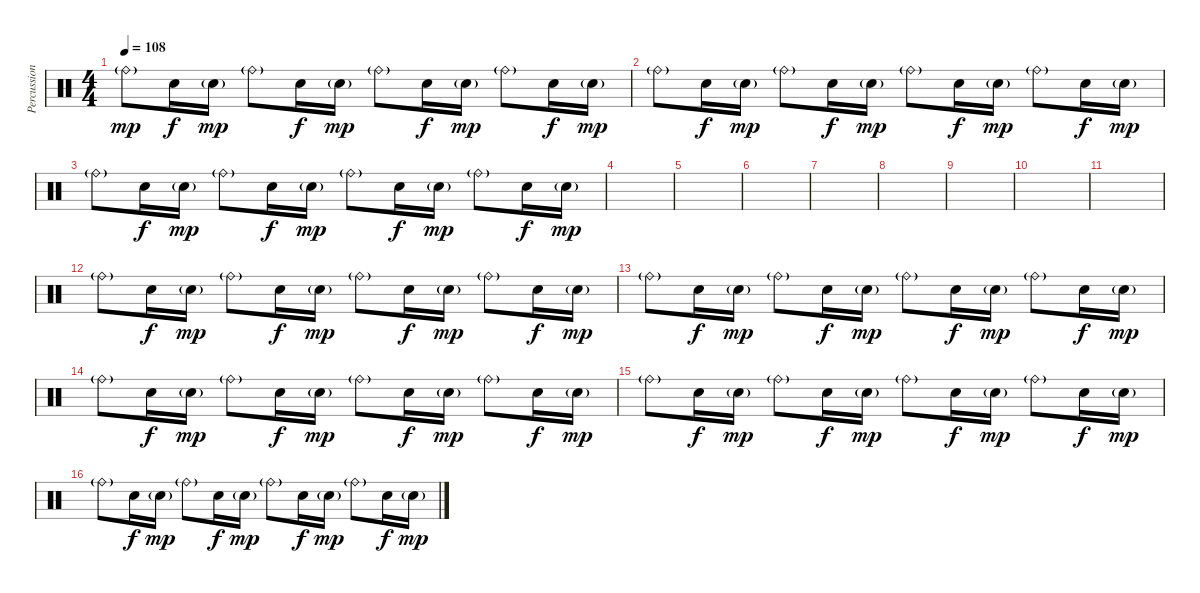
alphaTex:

\track ("Percussioni" "Percussion") {instrument percussion}
\staff {score}
\articulation defaults
\ts (4 4)
\tempo 108
\clef neutral
\ks c "Ride (bell)"{g}.8{dy mp} "Snare (hit) 2".16{dy f} "Snare (hit) 2"{g}.16{dy mp} "Ride (bell)"{g}.8 "Snare (hit) 2".16{dy f} "Snare (hit) 2"{g}.16{dy mp} "Ride (bell)"{g}.8 "Snare (hit) 2".16{dy f} "Snare (hit) 2"{g}.16{dy mp} "Ride (bell)"{g}.8 "Snare (hit) 2".16{dy f} "Snare (hit) 2"{g}.16{dy mp}
|
"Ride (bell)"{g}.8 "Snare (hit) 2".16{dy f} "Snare (hit) 2"{g}.16{dy mp} "Ride (bell)"{g}.8 "Snare (hit) 2".16{dy f} "Snare (hit) 2"{g}.16{dy mp} "Ride (bell)"{g}.8 "Snare (hit) 2".16{dy f} "Snare (hit) 2"{g}.16{dy mp} "Ride (bell)"{g}.8 "Snare (hit) 2".16{dy f} "Snare (hit) 2"{g}.16{dy mp} |
"Ride (bell)"{g}.8 "Snare (hit) 2".16{dy f} "Snare (hit) 2"{g}.16{dy mp} "Ride (bell)"{g}.8 "Snare (hit) 2".16{dy f} "Snare (hit) 2"{g}.16{dy mp} "Ride (bell)"{g}.8 "Snare (hit) 2".16{dy f} "Snare (hit) 2"{g}.16{dy mp} "Ride (bell)"{g}.8 "Snare (hit) 2".16{dy f} "Snare (hit) 2"{g}.16{dy mp} |
|
|
|
|
|
|
|
|
"Ride (bell)"{g}.8 "Snare (hit) 2".16{dy f} "Snare (hit) 2"{g}.16{dy mp} "Ride (bell)"{g}.8 "Snare (hit) 2".16{dy f} "Snare (hit) 2"{g}.16{dy mp} "Ride (bell)"{g}.8 "Snare (hit) 2".16{dy f} "Snare (hit) 2"{g}.16{dy mp} "Ride (bell)"{g}.8 "Snare (hit) 2".16{dy f} "Snare (hit) 2"{g}.16{dy mp} |
"Ride (bell)"{g}.8 "Snare (hit) 2".16{dy f} "Snare (hit) 2"{g}.16{dy mp} "Ride (bell)"{g}.8 "Snare (hit) 2".16{dy f} "Snare (hit) 2"{g}.16{dy mp} "Ride (bell)"{g}.8 "Snare (hit) 2".16{dy f} "Snare (hit) 2"{g}.16{dy mp} "Ride (bell)"{g}.8 "Snare (hit) 2".16{dy f} "Snare (hit) 2"{g}.16{dy mp} |
"Ride (bell)"{g}.8 "Snare (hit) 2".16{dy f} "Snare (hit) 2"{g}.16{dy mp} "Ride (bell)"{g}.8 "Snare (hit) 2".16{dy f} "Snare (hit) 2"{g}.16{dy mp} "Ride (bell)"{g}.8 "Snare (hit) 2".16{dy f} "Snare (hit) 2"{g}.16{dy mp} "Ride (bell)"{g}.8 "Snare (hit) 2".16{dy f} "Snare (hit) 2"{g}.16{dy mp} |
"Ride (bell)"{g}.8 "Snare (hit) 2".16{dy f} "Snare (hit) 2"{g}.16{dy mp} "Ride (bell)"{g}.8 "Snare (hit) 2".16{dy f} "Snare (hit) 2"{g}.16{dy mp} "Ride (bell)"{g}.8 "Snare (hit) 2".16{dy f} "Snare (hit) 2"{g}.16{dy mp} "Ride (bell)"{g}.8 "Snare (hit) 2".16{dy f} "Snare (hit) 2"{g}.16{dy mp} |
"Ride (bell)"{g}.8 "Snare (hit) 2".16{dy f} "Snare (hit) 2"{g}.16{dy mp} "Ride (bell)"{g}.8 "Snare (hit) 2".16{dy f} "Snare (hit) 2"{g}.16{dy mp} "Ride (bell)"{g}.8 "Snare (hit) 2".16{dy f} "Snare (hit) 2"{g}.16{dy mp} "Ride (bell)"{g}.8 "Snare (hit) 2".16{dy f} "Snare (hit) 2"{g}.16{dy mp}
